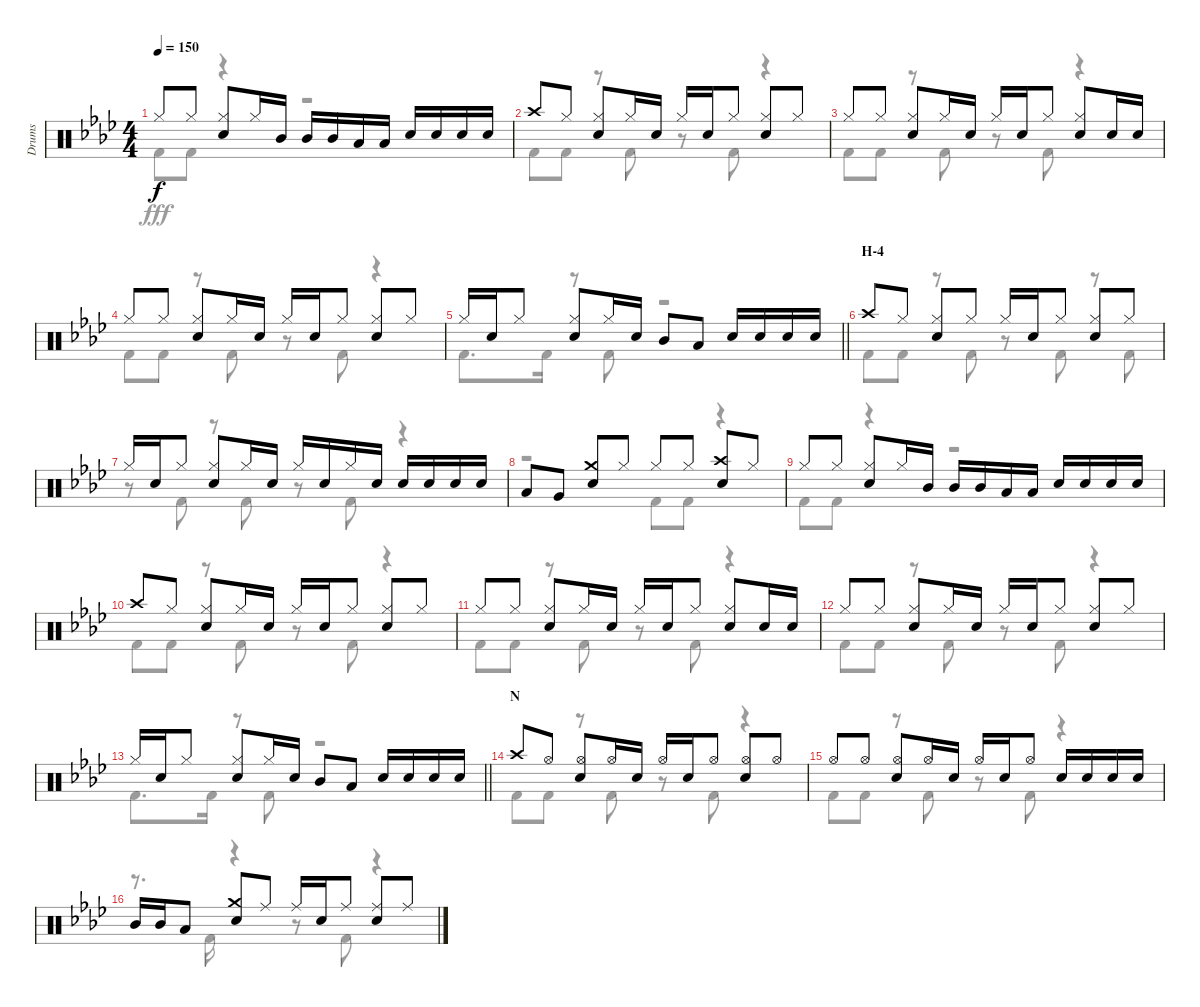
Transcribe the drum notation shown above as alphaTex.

\track ("Drums" "Drums") {instrument percussion}
\staff {score}
\articulation defaults
\voice
\ts (4 4)
\tempo 150
\clef neutral
\ks ab "Hi-Hat (closed)".8{dy f} "Hi-Hat (closed)".8
("Hi-Hat (closed)" "Snare (hit) 2").8 "Hi-Hat (closed)".16 "Mid Tom (hit)".16 "Mid Tom (hit)".16 "Mid Tom (hit)".16 "Low Tom (hit)".16 "Low Tom (hit)".16 "Snare (hit) 2".16 "Snare (hit) 2".16 "Snare (hit) 2".16 "Snare (hit) 2".16 |
"Crash high (hit)".8 "Hi-Hat (closed)".8 ("Hi-Hat (closed)" "Snare (hit) 2").8 "Hi-Hat (closed)".16 "Snare (hit) 2".16 "Hi-Hat (closed)".16 "Snare (hit) 2".16 "Hi-Hat (closed)".8 ("Hi-Hat (closed)" "Snare (hit) 2").8 "Hi-Hat (closed)".8 |
"Hi-Hat (closed)".8 "Hi-Hat (closed)".8 ("Hi-Hat (closed)" "Snare (hit) 2").8 "Hi-Hat (closed)".16 "Snare (hit) 2".16 "Hi-Hat (closed)".16 "Snare (hit) 2".16 "Hi-Hat (closed)".8 ("Hi-Hat (closed)" "Snare (hit) 2").8 "Snare (hit) 2".16 "Snare (hit) 2".16 |
"Hi-Hat (closed)".8 "Hi-Hat (closed)".8 ("Hi-Hat (closed)" "Snare (hit) 2").8 "Hi-Hat (closed)".16 "Snare (hit) 2".16 "Hi-Hat (closed)".16 "Snare (hit) 2".16 "Hi-Hat (closed)".8 ("Hi-Hat (closed)" "Snare (hit) 2").8 "Hi-Hat (closed)".8 |
\barLineRight lightlight "Hi-Hat (closed)".16 "Snare (hit) 2".16 "Hi-Hat (closed)".8
("Hi-Hat (closed)" "Snare (hit) 2").8 "Hi-Hat (closed)".16 "Snare (hit) 2".16 "Mid Tom (hit)".8 "Low Tom (hit)".8 "Snare (hit) 2".16 "Snare (hit) 2".16 "Snare (hit) 2".16 "Snare (hit) 2".16 |
\section ("" "H-4")
"Crash high (hit)".8 "Hi-Hat (closed)".8 ("Hi-Hat (closed)" "Snare (hit) 2").8 "Hi-Hat (closed)".8 "Hi-Hat (closed)".16 "Snare (hit) 2".16 "Hi-Hat (closed)".8 ("Hi-Hat (closed)" "Snare (hit) 2").8 "Hi-Hat (closed)".8 |
"Hi-Hat (closed)".16 "Snare (hit) 2".16 "Hi-Hat (closed)".8 ("Hi-Hat (closed)" "Snare (hit) 2").8 "Hi-Hat (closed)".16 "Snare (hit) 2".16 "Hi-Hat (closed)".16 "Snare (hit) 2".16 "Hi-Hat (closed)".16 "Snare (hit) 2".16 "Snare (hit) 2".16 "Snare (hit) 2".16 "Snare (hit) 2".16 "Snare (hit) 2".16 |
"Low Tom (hit)".8 "Very Low Tom (hit)".8 ("Crash medium (hit)" "Snare (hit) 2").8 "Hi-Hat (closed)".8 "Hi-Hat (closed)".8 "Hi-Hat (closed)".8 ("Crash high (hit)" "Snare (hit) 2").8 "Hi-Hat (closed)".8 |
"Hi-Hat (closed)".8 "Hi-Hat (closed)".8 ("Hi-Hat (closed)" "Snare (hit) 2").8 "Hi-Hat (closed)".16 "Mid Tom (hit)".16 "Mid Tom (hit)".16 "Mid Tom (hit)".16 "Low Tom (hit)".16 "Low Tom (hit)".16 "Snare (hit) 2".16 "Snare (hit) 2".16 "Snare (hit) 2".16 "Snare (hit) 2".16 |
"Crash high (hit)".8 "Hi-Hat (closed)".8 ("Hi-Hat (closed)" "Snare (hit) 2").8 "Hi-Hat (closed)".16 "Snare (hit) 2".16 "Hi-Hat (closed)".16 "Snare (hit) 2".16 "Hi-Hat (closed)".8 ("Hi-Hat (closed)" "Snare (hit) 2").8 "Hi-Hat (closed)".8 |
"Hi-Hat (closed)".8 "Hi-Hat (closed)".8 ("Hi-Hat (closed)" "Snare (hit) 2").8 "Hi-Hat (closed)".16 "Snare (hit) 2".16 "Hi-Hat (closed)".16 "Snare (hit) 2".16 "Hi-Hat (closed)".8 ("Hi-Hat (closed)" "Snare (hit) 2").8 "Snare (hit) 2".16 "Snare (hit) 2".16 |
"Hi-Hat (closed)".8 "Hi-Hat (closed)".8 ("Hi-Hat (closed)" "Snare (hit) 2").8 "Hi-Hat (closed)".16 "Snare (hit) 2".16 "Hi-Hat (closed)".16 "Snare (hit) 2".16 "Hi-Hat (closed)".8 ("Hi-Hat (closed)" "Snare (hit) 2").8 "Hi-Hat (closed)".8 |
\barLineRight lightlight "Hi-Hat (closed)".16 "Snare (hit) 2".16 "Hi-Hat (closed)".8
("Hi-Hat (closed)" "Snare (hit) 2").8 "Hi-Hat (closed)".16 "Snare (hit) 2".16 "Mid Tom (hit)".8 "Low Tom (hit)".8 "Snare (hit) 2".16 "Snare (hit) 2".16 "Snare (hit) 2".16 "Snare (hit) 2".16 |
\section ("" "N")
"Crash high (hit)".8 "Hi-Hat (open)".8 ("Hi-Hat (open)" "Snare (hit) 2").8 "Hi-Hat (open)".16 "Snare (hit) 2".16 "Hi-Hat (open)".16 "Snare (hit) 2".16 "Hi-Hat (open)".8 ("Hi-Hat (open)" "Snare (hit) 2").8 "Hi-Hat (open)".8 |
"Hi-Hat (open)".8 "Hi-Hat (open)".8 ("Hi-Hat (open)" "Snare (hit) 2").8 "Hi-Hat (open)".16 "Snare (hit) 2".16 "Hi-Hat (open)".16 "Snare (hit) 2".16 "Hi-Hat (open)".8 "Snare (hit) 2".16 "Snare (hit) 2".16 "Snare (hit) 2".16 "Snare (hit) 2".16 |
"Mid Tom (hit)".16 "Mid Tom (hit)".16 "Low Tom (hit)".8 ("Crash medium (hit)" "Snare (hit) 2").8 "Ride (middle)".8 "Ride (middle)".16 "Snare (hit) 2".16 "Ride (middle)".8 ("Ride (middle)" "Snare (hit) 2").8 "Ride (middle)".8
\voice
\clef neutral
\ottava regular
\simile none
\ks ab "Kick (hit) 2".8{dy fff} "Kick (hit) 2".8
r.4 r.2 |
"Kick (hit) 2".8 "Kick (hit) 2".8 r.8 "Kick (hit) 2".8 r.8 "Kick (hit) 2".8 r.4 |
"Kick (hit) 2".8 "Kick (hit) 2".8 r.8 "Kick (hit) 2".8 r.8 "Kick (hit) 2".8 r.4 |
"Kick (hit) 2".8 "Kick (hit) 2".8 r.8 "Kick (hit) 2".8 r.8 "Kick (hit) 2".8 r.4 |
\barLineRight lightlight "Kick (hit) 2".8{d} "Kick (hit) 2".16
r.8 "Kick (hit) 2".8 r.2 |
"Kick (hit) 2".8 "Kick (hit) 2".8 r.8 "Kick (hit) 2".8 r.8 "Kick (hit) 2".8 r.8 "Kick (hit) 2".8 |
r.8 "Kick (hit) 2".8 r.8 "Kick (hit) 2".8 r.8 "Kick (hit) 2".8 r.4 |
r.2 "Kick (hit) 2".8 "Kick (hit) 2".8 r.4 |
"Kick (hit) 2".8 "Kick (hit) 2".8 r.4 r.2 |
"Kick (hit) 2".8 "Kick (hit) 2".8 r.8 "Kick (hit) 2".8 r.8 "Kick (hit) 2".8 r.4 |
"Kick (hit) 2".8 "Kick (hit) 2".8 r.8 "Kick (hit) 2".8 r.8 "Kick (hit) 2".8 r.4 |
"Kick (hit) 2".8 "Kick (hit) 2".8 r.8 "Kick (hit) 2".8 r.8 "Kick (hit) 2".8 r.4 |
\barLineRight lightlight "Kick (hit) 2".8{d} "Kick (hit) 2".16
r.8 "Kick (hit) 2".8 r.2 |
"Kick (hit) 2".8 "Kick (hit) 2".8 r.8 "Kick (hit) 2".8 r.8 "Kick (hit) 2".8 r.4 |
"Kick (hit) 2".8 "Kick (hit) 2".8 r.8 "Kick (hit) 2".8 r.8 "Kick (hit) 2".8 r.4 |
r.8{d} "Kick (hit) 2".16 r.4 r.8 "Kick (hit) 2".8 r.4
